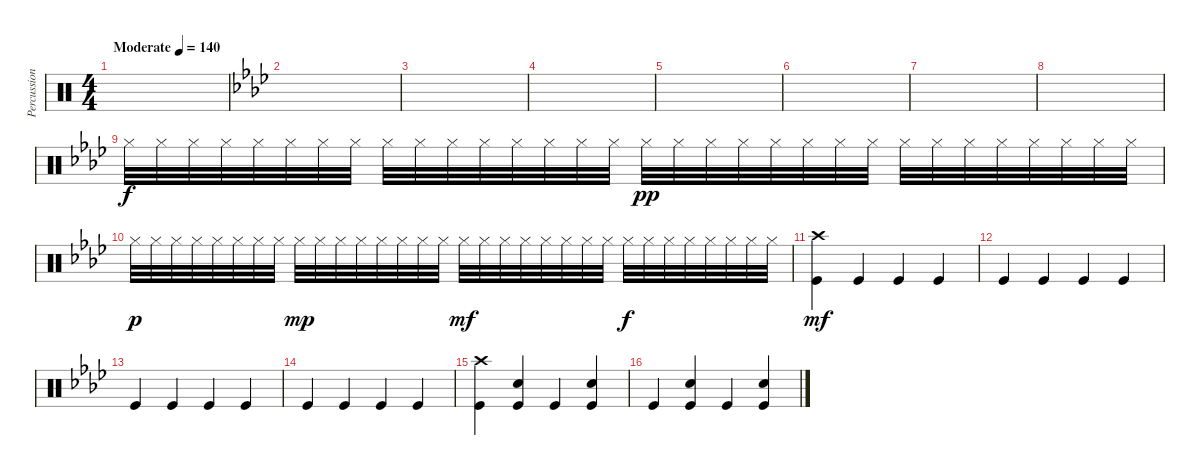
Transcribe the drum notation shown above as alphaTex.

\track ("Percussion" "Percussion") {instrument percussion}
\staff {score}
\articulation defaults
\ts (4 4)
\tempo (140 "Moderate")
\clef neutral
\ks c
|
\ks ab
|
|
|
|
|
|
|
"Hi-Hat (closed)".32 "Hi-Hat (closed)".32 "Hi-Hat (closed)".32 "Hi-Hat (closed)".32 "Hi-Hat (closed)".32 "Hi-Hat (closed)".32 "Hi-Hat (closed)".32 "Hi-Hat (closed)".32 "Hi-Hat (closed)".32 "Hi-Hat (closed)".32 "Hi-Hat (closed)".32 "Hi-Hat (closed)".32 "Hi-Hat (closed)".32 "Hi-Hat (closed)".32 "Hi-Hat (closed)".32 "Hi-Hat (closed)".32 "Hi-Hat (closed)".32{dy pp} "Hi-Hat (closed)".32 "Hi-Hat (closed)".32 "Hi-Hat (closed)".32 "Hi-Hat (closed)".32 "Hi-Hat (closed)".32 "Hi-Hat (closed)".32 "Hi-Hat (closed)".32 "Hi-Hat (closed)".32 "Hi-Hat (closed)".32 "Hi-Hat (closed)".32 "Hi-Hat (closed)".32 "Hi-Hat (closed)".32 "Hi-Hat (closed)".32 "Hi-Hat (closed)".32 "Hi-Hat (closed)".32 |
"Hi-Hat (closed)".32{dy p} "Hi-Hat (closed)".32 "Hi-Hat (closed)".32 "Hi-Hat (closed)".32 "Hi-Hat (closed)".32 "Hi-Hat (closed)".32 "Hi-Hat (closed)".32 "Hi-Hat (closed)".32 "Hi-Hat (closed)".32{dy mp} "Hi-Hat (closed)".32 "Hi-Hat (closed)".32 "Hi-Hat (closed)".32 "Hi-Hat (closed)".32 "Hi-Hat (closed)".32 "Hi-Hat (closed)".32 "Hi-Hat (closed)".32 "Hi-Hat (closed)".32{dy mf} "Hi-Hat (closed)".32 "Hi-Hat (closed)".32 "Hi-Hat (closed)".32 "Hi-Hat (closed)".32 "Hi-Hat (closed)".32 "Hi-Hat (closed)".32 "Hi-Hat (closed)".32 "Hi-Hat (closed)".32{dy f} "Hi-Hat (closed)".32 "Hi-Hat (closed)".32 "Hi-Hat (closed)".32 "Hi-Hat (closed)".32 "Hi-Hat (closed)".32 "Hi-Hat (closed)".32 "Hi-Hat (closed)".32 |
("Kick (hit)" "Crash high (hit)").4{dy mf} "Kick (hit)".4 "Kick (hit)".4 "Kick (hit)".4 |
"Kick (hit)".4 "Kick (hit)".4 "Kick (hit)".4 "Kick (hit)".4 |
"Kick (hit)".4 "Kick (hit)".4 "Kick (hit)".4 "Kick (hit)".4 |
"Kick (hit)".4 "Kick (hit)".4 "Kick (hit)".4 "Kick (hit)".4 |
("Kick (hit)" "Crash high (hit)").4 ("Snare (hit) 2" "Kick (hit)").4 "Kick (hit)".4 ("Snare (hit) 2" "Kick (hit)").4 |
"Kick (hit)".4 ("Snare (hit) 2" "Kick (hit)").4 "Kick (hit)".4 ("Snare (hit) 2" "Kick (hit)").4
